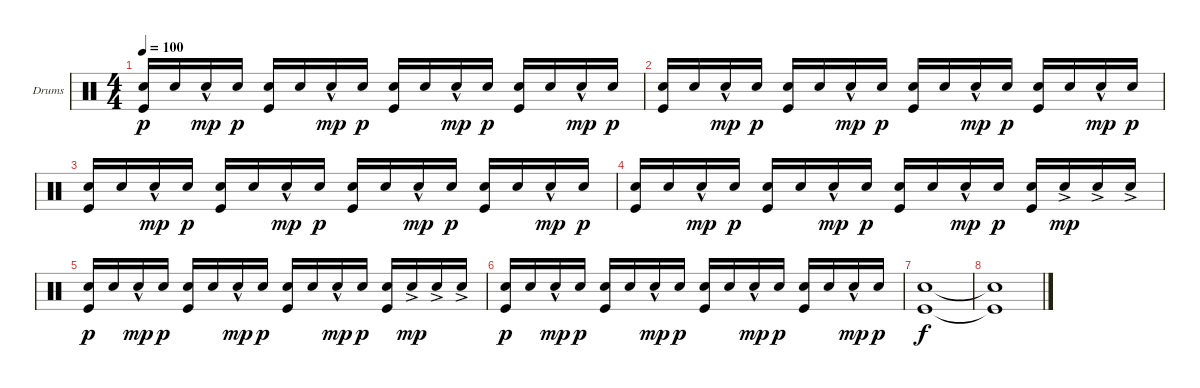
\defaultSystemsLayout 4
\bracketExtendMode groupsimilarinstruments
\firstSystemTrackNameOrientation horizontal
\otherSystemsTrackNameOrientation horizontal
\track ("Drumkit" "Drums") {instrument percussion}
\staff {score}
\articulation defaults
\ts (4 4)
\tempo 100
\clef neutral
\ks c
("Snare (hit) 2" "Kick (hit)").16{dy p} "Snare (hit) 2".16 "Snare (hit) 2"{hac}.16{dy mp} "Snare (hit) 2".16{dy p} ("Snare (hit) 2" "Kick (hit)").16 "Snare (hit) 2".16 "Snare (hit) 2"{hac}.16{dy mp} "Snare (hit) 2".16{dy p} ("Snare (hit) 2" "Kick (hit)").16 "Snare (hit) 2".16 "Snare (hit) 2"{hac}.16{dy mp} "Snare (hit) 2".16{dy p} ("Snare (hit) 2" "Kick (hit)").16 "Snare (hit) 2".16 "Snare (hit) 2"{hac}.16{dy mp} "Snare (hit) 2".16{dy p} |
("Snare (hit) 2" "Kick (hit)").16 "Snare (hit) 2".16 "Snare (hit) 2"{hac}.16{dy mp} "Snare (hit) 2".16{dy p} ("Snare (hit) 2" "Kick (hit)").16 "Snare (hit) 2".16 "Snare (hit) 2"{hac}.16{dy mp} "Snare (hit) 2".16{dy p} ("Snare (hit) 2" "Kick (hit)").16 "Snare (hit) 2".16 "Snare (hit) 2"{hac}.16{dy mp} "Snare (hit) 2".16{dy p} ("Snare (hit) 2" "Kick (hit)").16 "Snare (hit) 2".16 "Snare (hit) 2"{hac}.16{dy mp} "Snare (hit) 2".16{dy p} |
("Snare (hit) 2" "Kick (hit)").16 "Snare (hit) 2".16 "Snare (hit) 2"{hac}.16{dy mp} "Snare (hit) 2".16{dy p} ("Snare (hit) 2" "Kick (hit)").16 "Snare (hit) 2".16 "Snare (hit) 2"{hac}.16{dy mp} "Snare (hit) 2".16{dy p} ("Snare (hit) 2" "Kick (hit)").16 "Snare (hit) 2".16 "Snare (hit) 2"{hac}.16{dy mp} "Snare (hit) 2".16{dy p} ("Snare (hit) 2" "Kick (hit)").16 "Snare (hit) 2".16 "Snare (hit) 2"{hac}.16{dy mp} "Snare (hit) 2".16{dy p} |
("Snare (hit) 2" "Kick (hit)").16 "Snare (hit) 2".16 "Snare (hit) 2"{hac}.16{dy mp} "Snare (hit) 2".16{dy p} ("Snare (hit) 2" "Kick (hit)").16 "Snare (hit) 2".16 "Snare (hit) 2"{hac}.16{dy mp} "Snare (hit) 2".16{dy p} ("Snare (hit) 2" "Kick (hit)").16 "Snare (hit) 2".16 "Snare (hit) 2"{hac}.16{dy mp} "Snare (hit) 2".16{dy p} ("Snare (hit) 2" "Kick (hit)").16 "Snare (hit) 2"{ac}.16{dy mp} "Snare (hit) 2"{ac}.16 "Snare (hit) 2"{ac}.16 |
("Snare (hit) 2" "Kick (hit)").16{dy p} "Snare (hit) 2".16 "Snare (hit) 2"{hac}.16{dy mp} "Snare (hit) 2".16{dy p} ("Snare (hit) 2" "Kick (hit)").16 "Snare (hit) 2".16 "Snare (hit) 2"{hac}.16{dy mp} "Snare (hit) 2".16{dy p} ("Snare (hit) 2" "Kick (hit)").16 "Snare (hit) 2".16 "Snare (hit) 2"{hac}.16{dy mp} "Snare (hit) 2".16{dy p} ("Snare (hit) 2" "Kick (hit)").16 "Snare (hit) 2"{ac}.16{dy mp} "Snare (hit) 2"{ac}.16 "Snare (hit) 2"{ac}.16 |
("Snare (hit) 2" "Kick (hit)").16{dy p} "Snare (hit) 2".16 "Snare (hit) 2"{hac}.16{dy mp} "Snare (hit) 2".16{dy p} ("Snare (hit) 2" "Kick (hit)").16 "Snare (hit) 2".16 "Snare (hit) 2"{hac}.16{dy mp} "Snare (hit) 2".16{dy p} ("Snare (hit) 2" "Kick (hit)").16 "Snare (hit) 2".16 "Snare (hit) 2"{hac}.16{dy mp} "Snare (hit) 2".16{dy p} ("Snare (hit) 2" "Kick (hit)").16 "Snare (hit) 2".16 "Snare (hit) 2"{hac}.16{dy mp} "Snare (hit) 2".16{dy p} |
("Kick (hit)" "Snare (hit) 2").1{dy f} |
("Kick (hit)"{t} "Snare (hit) 2"{t}).1
